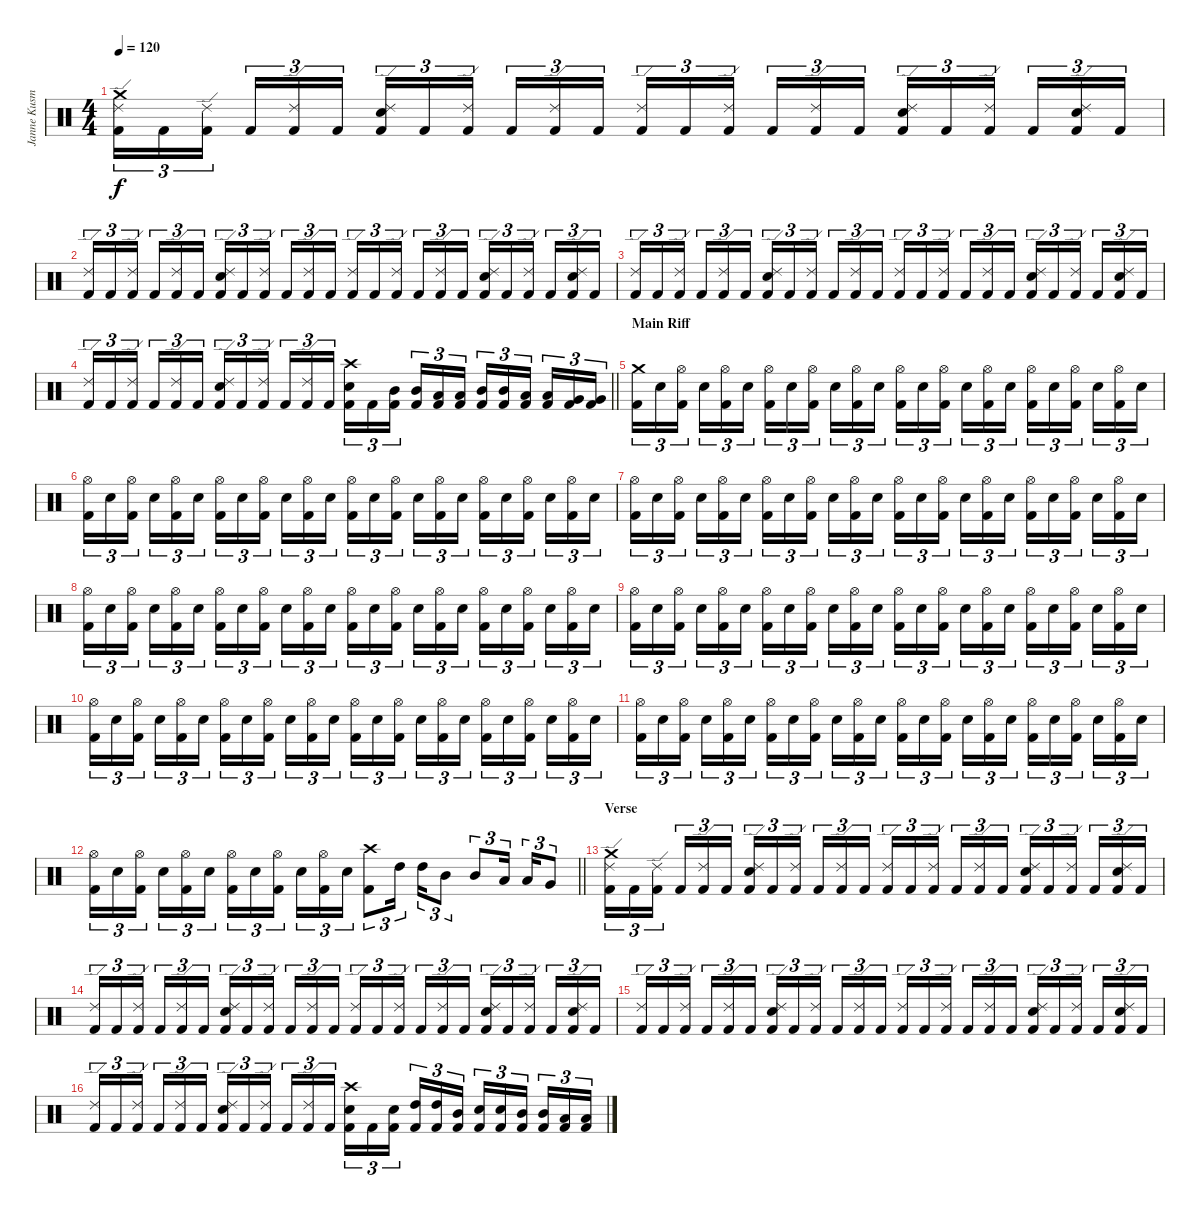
\track ("Janne Kusmin" "Janne Kusm") {instrument percussion}
\staff {score}
\articulation defaults
\ts (4 4)
\tempo 120
\clef neutral
\ks c
("Crash medium (hit)" "Ride (edge) 2" "Kick (hit) 2").16{tu (3 2) dy f} "Kick (hit) 2".16{tu (3 2)} ("Ride (edge) 2" "Kick (hit) 2").16{tu (3 2) beam splitsecondary} "Kick (hit) 2".16{tu (3 2)} ("Ride (edge) 2" "Kick (hit) 2").16{tu (3 2)} "Kick (hit) 2".16{tu (3 2)} ("Ride (edge) 2" "Snare (hit) 2" "Kick (hit) 2").16{tu (3 2)} "Kick (hit) 2".16{tu (3 2)} ("Ride (edge) 2" "Kick (hit) 2").16{tu (3 2) beam splitsecondary} "Kick (hit) 2".16{tu (3 2)} ("Ride (edge) 2" "Kick (hit) 2").16{tu (3 2)} "Kick (hit) 2".16{tu (3 2)} ("Ride (edge) 2" "Kick (hit) 2").16{tu (3 2)} "Kick (hit) 2".16{tu (3 2)} ("Ride (edge) 2" "Kick (hit) 2").16{tu (3 2) beam splitsecondary} "Kick (hit) 2".16{tu (3 2)} ("Ride (edge) 2" "Kick (hit) 2").16{tu (3 2)} "Kick (hit) 2".16{tu (3 2)} ("Ride (edge) 2" "Snare (hit) 2" "Kick (hit) 2").16{tu (3 2)} "Kick (hit) 2".16{tu (3 2)} ("Ride (edge) 2" "Kick (hit) 2").16{tu (3 2) beam splitsecondary} "Kick (hit) 2".16{tu (3 2)} ("Ride (edge) 2" "Snare (hit) 2" "Kick (hit) 2").16{tu (3 2)} "Kick (hit) 2".16{tu (3 2)} |
("Ride (edge) 2" "Kick (hit) 2").16{tu (3 2)} "Kick (hit) 2".16{tu (3 2)} ("Ride (edge) 2" "Kick (hit) 2").16{tu (3 2) beam splitsecondary} "Kick (hit) 2".16{tu (3 2)} ("Ride (edge) 2" "Kick (hit) 2").16{tu (3 2)} "Kick (hit) 2".16{tu (3 2)} ("Ride (edge) 2" "Snare (hit) 2" "Kick (hit) 2").16{tu (3 2)} "Kick (hit) 2".16{tu (3 2)} ("Ride (edge) 2" "Kick (hit) 2").16{tu (3 2) beam splitsecondary} "Kick (hit) 2".16{tu (3 2)} ("Ride (edge) 2" "Kick (hit) 2").16{tu (3 2)} "Kick (hit) 2".16{tu (3 2)} ("Ride (edge) 2" "Kick (hit) 2").16{tu (3 2)} "Kick (hit) 2".16{tu (3 2)} ("Ride (edge) 2" "Kick (hit) 2").16{tu (3 2) beam splitsecondary} "Kick (hit) 2".16{tu (3 2)} ("Ride (edge) 2" "Kick (hit) 2").16{tu (3 2)} "Kick (hit) 2".16{tu (3 2)} ("Ride (edge) 2" "Snare (hit) 2" "Kick (hit) 2").16{tu (3 2)} "Kick (hit) 2".16{tu (3 2)} ("Ride (edge) 2" "Kick (hit) 2").16{tu (3 2) beam splitsecondary} "Kick (hit) 2".16{tu (3 2)} ("Ride (edge) 2" "Snare (hit) 2" "Kick (hit) 2").16{tu (3 2)} "Kick (hit) 2".16{tu (3 2)} |
("Ride (edge) 2" "Kick (hit) 2").16{tu (3 2)} "Kick (hit) 2".16{tu (3 2)} ("Ride (edge) 2" "Kick (hit) 2").16{tu (3 2) beam splitsecondary} "Kick (hit) 2".16{tu (3 2)} ("Ride (edge) 2" "Kick (hit) 2").16{tu (3 2)} "Kick (hit) 2".16{tu (3 2)} ("Ride (edge) 2" "Snare (hit) 2" "Kick (hit) 2").16{tu (3 2)} "Kick (hit) 2".16{tu (3 2)} ("Ride (edge) 2" "Kick (hit) 2").16{tu (3 2) beam splitsecondary} "Kick (hit) 2".16{tu (3 2)} ("Ride (edge) 2" "Kick (hit) 2").16{tu (3 2)} "Kick (hit) 2".16{tu (3 2)} ("Ride (edge) 2" "Kick (hit) 2").16{tu (3 2)} "Kick (hit) 2".16{tu (3 2)} ("Ride (edge) 2" "Kick (hit) 2").16{tu (3 2) beam splitsecondary} "Kick (hit) 2".16{tu (3 2)} ("Ride (edge) 2" "Kick (hit) 2").16{tu (3 2)} "Kick (hit) 2".16{tu (3 2)} ("Ride (edge) 2" "Snare (hit) 2" "Kick (hit) 2").16{tu (3 2)} "Kick (hit) 2".16{tu (3 2)} ("Ride (edge) 2" "Kick (hit) 2").16{tu (3 2) beam splitsecondary} "Kick (hit) 2".16{tu (3 2)} ("Ride (edge) 2" "Snare (hit) 2" "Kick (hit) 2").16{tu (3 2)} "Kick (hit) 2".16{tu (3 2)} |
\barLineRight lightlight
("Ride (edge) 2" "Kick (hit) 2").16{tu (3 2)} "Kick (hit) 2".16{tu (3 2)} ("Ride (edge) 2" "Kick (hit) 2").16{tu (3 2) beam splitsecondary} "Kick (hit) 2".16{tu (3 2)} ("Ride (edge) 2" "Kick (hit) 2").16{tu (3 2)} "Kick (hit) 2".16{tu (3 2)} ("Ride (edge) 2" "Snare (hit) 2" "Kick (hit) 2").16{tu (3 2)} "Kick (hit) 2".16{tu (3 2)} ("Ride (edge) 2" "Kick (hit) 2").16{tu (3 2) beam splitsecondary} "Kick (hit) 2".16{tu (3 2)} ("Ride (edge) 2" "Kick (hit) 2").16{tu (3 2)} "Kick (hit) 2".16{tu (3 2)} ("Crash high (hit)" "Snare (hit) 2" "Kick (hit) 2").16{tu (3 2)} "Kick (hit) 2".16{tu (3 2)} ("Mid Tom (hit)" "Kick (hit) 2").16{tu (3 2) beam splitsecondary} ("Mid Tom (hit)" "Kick (hit) 2").16{tu (3 2)} ("Low Tom (hit)" "Kick (hit) 2").16{tu (3 2)} ("Low Tom (hit)" "Kick (hit) 2").16{tu (3 2)} ("Mid Tom (hit)" "Kick (hit) 2").16{tu (3 2)} ("Mid Tom (hit)" "Kick (hit) 2").16{tu (3 2)} ("Low Tom (hit)" "Kick (hit) 2").16{tu (3 2) beam splitsecondary} ("Low Tom (hit)" "Kick (hit) 2").16{tu (3 2)} ("Very Low Tom (hit)" "Kick (hit) 2").16{tu (3 2)} ("Very Low Tom (hit)" "Kick (hit) 2").16{tu (3 2)} |
\section ("" "Main Riff")
("Crash medium (hit)" "Kick (hit) 2").16{tu (3 2)} "Snare (hit) 2".16{tu (3 2)} ("Hi-Hat (open)" "Kick (hit) 2").16{tu (3 2) beam splitsecondary} "Snare (hit) 2".16{tu (3 2)} ("Hi-Hat (open)" "Kick (hit) 2").16{tu (3 2)} "Snare (hit) 2".16{tu (3 2)} ("Hi-Hat (open)" "Kick (hit) 2").16{tu (3 2)} "Snare (hit) 2".16{tu (3 2)} ("Hi-Hat (open)" "Kick (hit) 2").16{tu (3 2) beam splitsecondary} "Snare (hit) 2".16{tu (3 2)} ("Hi-Hat (open)" "Kick (hit) 2").16{tu (3 2)} "Snare (hit) 2".16{tu (3 2)} ("Hi-Hat (open)" "Kick (hit) 2").16{tu (3 2)} "Snare (hit) 2".16{tu (3 2)} ("Hi-Hat (open)" "Kick (hit) 2").16{tu (3 2) beam splitsecondary} "Snare (hit) 2".16{tu (3 2)} ("Hi-Hat (open)" "Kick (hit) 2").16{tu (3 2)} "Snare (hit) 2".16{tu (3 2)} ("Hi-Hat (open)" "Kick (hit) 2").16{tu (3 2)} "Snare (hit) 2".16{tu (3 2)} ("Hi-Hat (open)" "Kick (hit) 2").16{tu (3 2) beam splitsecondary} "Snare (hit) 2".16{tu (3 2)} ("Hi-Hat (open)" "Kick (hit) 2").16{tu (3 2)} "Snare (hit) 2".16{tu (3 2)} |
("Hi-Hat (open)" "Kick (hit) 2").16{tu (3 2)} "Snare (hit) 2".16{tu (3 2)} ("Hi-Hat (open)" "Kick (hit) 2").16{tu (3 2) beam splitsecondary} "Snare (hit) 2".16{tu (3 2)} ("Hi-Hat (open)" "Kick (hit) 2").16{tu (3 2)} "Snare (hit) 2".16{tu (3 2)} ("Hi-Hat (open)" "Kick (hit) 2").16{tu (3 2)} "Snare (hit) 2".16{tu (3 2)} ("Hi-Hat (open)" "Kick (hit) 2").16{tu (3 2) beam splitsecondary} "Snare (hit) 2".16{tu (3 2)} ("Hi-Hat (open)" "Kick (hit) 2").16{tu (3 2)} "Snare (hit) 2".16{tu (3 2)} ("Hi-Hat (open)" "Kick (hit) 2").16{tu (3 2)} "Snare (hit) 2".16{tu (3 2)} ("Hi-Hat (open)" "Kick (hit) 2").16{tu (3 2) beam splitsecondary} "Snare (hit) 2".16{tu (3 2)} ("Hi-Hat (open)" "Kick (hit) 2").16{tu (3 2)} "Snare (hit) 2".16{tu (3 2)} ("Hi-Hat (open)" "Kick (hit) 2").16{tu (3 2)} "Snare (hit) 2".16{tu (3 2)} ("Hi-Hat (open)" "Kick (hit) 2").16{tu (3 2) beam splitsecondary} "Snare (hit) 2".16{tu (3 2)} ("Hi-Hat (open)" "Kick (hit) 2").16{tu (3 2)} "Snare (hit) 2".16{tu (3 2)} |
("Hi-Hat (open)" "Kick (hit) 2").16{tu (3 2)} "Snare (hit) 2".16{tu (3 2)} ("Hi-Hat (open)" "Kick (hit) 2").16{tu (3 2) beam splitsecondary} "Snare (hit) 2".16{tu (3 2)} ("Hi-Hat (open)" "Kick (hit) 2").16{tu (3 2)} "Snare (hit) 2".16{tu (3 2)} ("Hi-Hat (open)" "Kick (hit) 2").16{tu (3 2)} "Snare (hit) 2".16{tu (3 2)} ("Hi-Hat (open)" "Kick (hit) 2").16{tu (3 2) beam splitsecondary} "Snare (hit) 2".16{tu (3 2)} ("Hi-Hat (open)" "Kick (hit) 2").16{tu (3 2)} "Snare (hit) 2".16{tu (3 2)} ("Hi-Hat (open)" "Kick (hit) 2").16{tu (3 2)} "Snare (hit) 2".16{tu (3 2)} ("Hi-Hat (open)" "Kick (hit) 2").16{tu (3 2) beam splitsecondary} "Snare (hit) 2".16{tu (3 2)} ("Hi-Hat (open)" "Kick (hit) 2").16{tu (3 2)} "Snare (hit) 2".16{tu (3 2)} ("Hi-Hat (open)" "Kick (hit) 2").16{tu (3 2)} "Snare (hit) 2".16{tu (3 2)} ("Hi-Hat (open)" "Kick (hit) 2").16{tu (3 2) beam splitsecondary} "Snare (hit) 2".16{tu (3 2)} ("Hi-Hat (open)" "Kick (hit) 2").16{tu (3 2)} "Snare (hit) 2".16{tu (3 2)} |
("Hi-Hat (open)" "Kick (hit) 2").16{tu (3 2)} "Snare (hit) 2".16{tu (3 2)} ("Hi-Hat (open)" "Kick (hit) 2").16{tu (3 2) beam splitsecondary} "Snare (hit) 2".16{tu (3 2)} ("Hi-Hat (open)" "Kick (hit) 2").16{tu (3 2)} "Snare (hit) 2".16{tu (3 2)} ("Hi-Hat (open)" "Kick (hit) 2").16{tu (3 2)} "Snare (hit) 2".16{tu (3 2)} ("Hi-Hat (open)" "Kick (hit) 2").16{tu (3 2) beam splitsecondary} "Snare (hit) 2".16{tu (3 2)} ("Hi-Hat (open)" "Kick (hit) 2").16{tu (3 2)} "Snare (hit) 2".16{tu (3 2)} ("Hi-Hat (open)" "Kick (hit) 2").16{tu (3 2)} "Snare (hit) 2".16{tu (3 2)} ("Hi-Hat (open)" "Kick (hit) 2").16{tu (3 2) beam splitsecondary} "Snare (hit) 2".16{tu (3 2)} ("Hi-Hat (open)" "Kick (hit) 2").16{tu (3 2)} "Snare (hit) 2".16{tu (3 2)} ("Hi-Hat (open)" "Kick (hit) 2").16{tu (3 2)} "Snare (hit) 2".16{tu (3 2)} ("Hi-Hat (open)" "Kick (hit) 2").16{tu (3 2) beam splitsecondary} "Snare (hit) 2".16{tu (3 2)} ("Hi-Hat (open)" "Kick (hit) 2").16{tu (3 2)} "Snare (hit) 2".16{tu (3 2)} |
("Hi-Hat (open)" "Kick (hit) 2").16{tu (3 2)} "Snare (hit) 2".16{tu (3 2)} ("Hi-Hat (open)" "Kick (hit) 2").16{tu (3 2) beam splitsecondary} "Snare (hit) 2".16{tu (3 2)} ("Hi-Hat (open)" "Kick (hit) 2").16{tu (3 2)} "Snare (hit) 2".16{tu (3 2)} ("Hi-Hat (open)" "Kick (hit) 2").16{tu (3 2)} "Snare (hit) 2".16{tu (3 2)} ("Hi-Hat (open)" "Kick (hit) 2").16{tu (3 2) beam splitsecondary} "Snare (hit) 2".16{tu (3 2)} ("Hi-Hat (open)" "Kick (hit) 2").16{tu (3 2)} "Snare (hit) 2".16{tu (3 2)} ("Hi-Hat (open)" "Kick (hit) 2").16{tu (3 2)} "Snare (hit) 2".16{tu (3 2)} ("Hi-Hat (open)" "Kick (hit) 2").16{tu (3 2) beam splitsecondary} "Snare (hit) 2".16{tu (3 2)} ("Hi-Hat (open)" "Kick (hit) 2").16{tu (3 2)} "Snare (hit) 2".16{tu (3 2)} ("Hi-Hat (open)" "Kick (hit) 2").16{tu (3 2)} "Snare (hit) 2".16{tu (3 2)} ("Hi-Hat (open)" "Kick (hit) 2").16{tu (3 2) beam splitsecondary} "Snare (hit) 2".16{tu (3 2)} ("Hi-Hat (open)" "Kick (hit) 2").16{tu (3 2)} "Snare (hit) 2".16{tu (3 2)} |
("Hi-Hat (open)" "Kick (hit) 2").16{tu (3 2)} "Snare (hit) 2".16{tu (3 2)} ("Hi-Hat (open)" "Kick (hit) 2").16{tu (3 2) beam splitsecondary} "Snare (hit) 2".16{tu (3 2)} ("Hi-Hat (open)" "Kick (hit) 2").16{tu (3 2)} "Snare (hit) 2".16{tu (3 2)} ("Hi-Hat (open)" "Kick (hit) 2").16{tu (3 2)} "Snare (hit) 2".16{tu (3 2)} ("Hi-Hat (open)" "Kick (hit) 2").16{tu (3 2) beam splitsecondary} "Snare (hit) 2".16{tu (3 2)} ("Hi-Hat (open)" "Kick (hit) 2").16{tu (3 2)} "Snare (hit) 2".16{tu (3 2)} ("Hi-Hat (open)" "Kick (hit) 2").16{tu (3 2)} "Snare (hit) 2".16{tu (3 2)} ("Hi-Hat (open)" "Kick (hit) 2").16{tu (3 2) beam splitsecondary} "Snare (hit) 2".16{tu (3 2)} ("Hi-Hat (open)" "Kick (hit) 2").16{tu (3 2)} "Snare (hit) 2".16{tu (3 2)} ("Hi-Hat (open)" "Kick (hit) 2").16{tu (3 2)} "Snare (hit) 2".16{tu (3 2)} ("Hi-Hat (open)" "Kick (hit) 2").16{tu (3 2) beam splitsecondary} "Snare (hit) 2".16{tu (3 2)} ("Hi-Hat (open)" "Kick (hit) 2").16{tu (3 2)} "Snare (hit) 2".16{tu (3 2)} |
("Hi-Hat (open)" "Kick (hit) 2").16{tu (3 2)} "Snare (hit) 2".16{tu (3 2)} ("Hi-Hat (open)" "Kick (hit) 2").16{tu (3 2) beam splitsecondary} "Snare (hit) 2".16{tu (3 2)} ("Hi-Hat (open)" "Kick (hit) 2").16{tu (3 2)} "Snare (hit) 2".16{tu (3 2)} ("Hi-Hat (open)" "Kick (hit) 2").16{tu (3 2)} "Snare (hit) 2".16{tu (3 2)} ("Hi-Hat (open)" "Kick (hit) 2").16{tu (3 2) beam splitsecondary} "Snare (hit) 2".16{tu (3 2)} ("Hi-Hat (open)" "Kick (hit) 2").16{tu (3 2)} "Snare (hit) 2".16{tu (3 2)} ("Hi-Hat (open)" "Kick (hit) 2").16{tu (3 2)} "Snare (hit) 2".16{tu (3 2)} ("Hi-Hat (open)" "Kick (hit) 2").16{tu (3 2) beam splitsecondary} "Snare (hit) 2".16{tu (3 2)} ("Hi-Hat (open)" "Kick (hit) 2").16{tu (3 2)} "Snare (hit) 2".16{tu (3 2)} ("Hi-Hat (open)" "Kick (hit) 2").16{tu (3 2)} "Snare (hit) 2".16{tu (3 2)} ("Hi-Hat (open)" "Kick (hit) 2").16{tu (3 2) beam splitsecondary} "Snare (hit) 2".16{tu (3 2)} ("Hi-Hat (open)" "Kick (hit) 2").16{tu (3 2)} "Snare (hit) 2".16{tu (3 2)} |
\barLineRight lightlight
("Hi-Hat (open)" "Kick (hit) 2").16{tu (3 2)} "Snare (hit) 2".16{tu (3 2)} ("Hi-Hat (open)" "Kick (hit) 2").16{tu (3 2) beam splitsecondary} "Snare (hit) 2".16{tu (3 2)} ("Hi-Hat (open)" "Kick (hit) 2").16{tu (3 2)} "Snare (hit) 2".16{tu (3 2)} ("Hi-Hat (open)" "Kick (hit) 2").16{tu (3 2)} "Snare (hit) 2".16{tu (3 2)} ("Hi-Hat (open)" "Kick (hit) 2").16{tu (3 2) beam splitsecondary} "Snare (hit) 2".16{tu (3 2)} ("Hi-Hat (open)" "Kick (hit) 2").16{tu (3 2)} "Snare (hit) 2".16{tu (3 2)} ("Crash high (hit)" "Kick (hit) 2").8{tu (3 2)} "High Tom (hit)".16{tu (3 2) beam splitsecondary} "High Tom (hit)".16{tu (3 2)} "Mid Tom (hit)".8{tu (3 2)} "Mid Tom (hit)".8{tu (3 2)} "Low Tom (hit)".16{tu (3 2) beam splitsecondary} "Low Tom (hit)".16{tu (3 2)} "Very Low Tom (hit)".8{tu (3 2)} |
\section ("" "Verse")
("Crash medium (hit)" "Ride (edge) 2" "Kick (hit) 2").16{tu (3 2)} "Kick (hit) 2".16{tu (3 2)} ("Ride (edge) 2" "Kick (hit) 2").16{tu (3 2) beam splitsecondary} "Kick (hit) 2".16{tu (3 2)} ("Ride (edge) 2" "Kick (hit) 2").16{tu (3 2)} "Kick (hit) 2".16{tu (3 2)} ("Ride (edge) 2" "Snare (hit) 2" "Kick (hit) 2").16{tu (3 2)} "Kick (hit) 2".16{tu (3 2)} ("Ride (edge) 2" "Kick (hit) 2").16{tu (3 2) beam splitsecondary} "Kick (hit) 2".16{tu (3 2)} ("Ride (edge) 2" "Kick (hit) 2").16{tu (3 2)} "Kick (hit) 2".16{tu (3 2)} ("Ride (edge) 2" "Kick (hit) 2").16{tu (3 2)} "Kick (hit) 2".16{tu (3 2)} ("Ride (edge) 2" "Kick (hit) 2").16{tu (3 2) beam splitsecondary} "Kick (hit) 2".16{tu (3 2)} ("Ride (edge) 2" "Kick (hit) 2").16{tu (3 2)} "Kick (hit) 2".16{tu (3 2)} ("Ride (edge) 2" "Snare (hit) 2" "Kick (hit) 2").16{tu (3 2)} "Kick (hit) 2".16{tu (3 2)} ("Ride (edge) 2" "Kick (hit) 2").16{tu (3 2) beam splitsecondary} "Kick (hit) 2".16{tu (3 2)} ("Ride (edge) 2" "Snare (hit) 2" "Kick (hit) 2").16{tu (3 2)} "Kick (hit) 2".16{tu (3 2)} |
("Ride (edge) 2" "Kick (hit) 2").16{tu (3 2)} "Kick (hit) 2".16{tu (3 2)} ("Ride (edge) 2" "Kick (hit) 2").16{tu (3 2) beam splitsecondary} "Kick (hit) 2".16{tu (3 2)} ("Ride (edge) 2" "Kick (hit) 2").16{tu (3 2)} "Kick (hit) 2".16{tu (3 2)} ("Ride (edge) 2" "Snare (hit) 2" "Kick (hit) 2").16{tu (3 2)} "Kick (hit) 2".16{tu (3 2)} ("Ride (edge) 2" "Kick (hit) 2").16{tu (3 2) beam splitsecondary} "Kick (hit) 2".16{tu (3 2)} ("Ride (edge) 2" "Kick (hit) 2").16{tu (3 2)} "Kick (hit) 2".16{tu (3 2)} ("Ride (edge) 2" "Kick (hit) 2").16{tu (3 2)} "Kick (hit) 2".16{tu (3 2)} ("Ride (edge) 2" "Kick (hit) 2").16{tu (3 2) beam splitsecondary} "Kick (hit) 2".16{tu (3 2)} ("Ride (edge) 2" "Kick (hit) 2").16{tu (3 2)} "Kick (hit) 2".16{tu (3 2)} ("Ride (edge) 2" "Snare (hit) 2" "Kick (hit) 2").16{tu (3 2)} "Kick (hit) 2".16{tu (3 2)} ("Ride (edge) 2" "Kick (hit) 2").16{tu (3 2) beam splitsecondary} "Kick (hit) 2".16{tu (3 2)} ("Ride (edge) 2" "Snare (hit) 2" "Kick (hit) 2").16{tu (3 2)} "Kick (hit) 2".16{tu (3 2)} |
("Ride (edge) 2" "Kick (hit) 2").16{tu (3 2)} "Kick (hit) 2".16{tu (3 2)} ("Ride (edge) 2" "Kick (hit) 2").16{tu (3 2) beam splitsecondary} "Kick (hit) 2".16{tu (3 2)} ("Ride (edge) 2" "Kick (hit) 2").16{tu (3 2)} "Kick (hit) 2".16{tu (3 2)} ("Ride (edge) 2" "Snare (hit) 2" "Kick (hit) 2").16{tu (3 2)} "Kick (hit) 2".16{tu (3 2)} ("Ride (edge) 2" "Kick (hit) 2").16{tu (3 2) beam splitsecondary} "Kick (hit) 2".16{tu (3 2)} ("Ride (edge) 2" "Kick (hit) 2").16{tu (3 2)} "Kick (hit) 2".16{tu (3 2)} ("Ride (edge) 2" "Kick (hit) 2").16{tu (3 2)} "Kick (hit) 2".16{tu (3 2)} ("Ride (edge) 2" "Kick (hit) 2").16{tu (3 2) beam splitsecondary} "Kick (hit) 2".16{tu (3 2)} ("Ride (edge) 2" "Kick (hit) 2").16{tu (3 2)} "Kick (hit) 2".16{tu (3 2)} ("Ride (edge) 2" "Snare (hit) 2" "Kick (hit) 2").16{tu (3 2)} "Kick (hit) 2".16{tu (3 2)} ("Ride (edge) 2" "Kick (hit) 2").16{tu (3 2) beam splitsecondary} "Kick (hit) 2".16{tu (3 2)} ("Ride (edge) 2" "Snare (hit) 2" "Kick (hit) 2").16{tu (3 2)} "Kick (hit) 2".16{tu (3 2)} |
("Ride (edge) 2" "Kick (hit) 2").16{tu (3 2)} "Kick (hit) 2".16{tu (3 2)} ("Ride (edge) 2" "Kick (hit) 2").16{tu (3 2) beam splitsecondary} "Kick (hit) 2".16{tu (3 2)} ("Ride (edge) 2" "Kick (hit) 2").16{tu (3 2)} "Kick (hit) 2".16{tu (3 2)} ("Ride (edge) 2" "Snare (hit) 2" "Kick (hit) 2").16{tu (3 2)} "Kick (hit) 2".16{tu (3 2)} ("Ride (edge) 2" "Kick (hit) 2").16{tu (3 2) beam splitsecondary} "Kick (hit) 2".16{tu (3 2)} ("Ride (edge) 2" "Kick (hit) 2").16{tu (3 2)} "Kick (hit) 2".16{tu (3 2)} ("Crash high (hit)" "Snare (hit) 2" "Kick (hit) 2").16{tu (3 2)} "Kick (hit) 2".16{tu (3 2)} ("Snare (hit) 2" "Kick (hit) 2").16{tu (3 2) beam splitsecondary} ("High Tom (hit)" "Kick (hit) 2").16{tu (3 2)} ("High Tom (hit)" "Kick (hit) 2").16{tu (3 2)} ("Mid Tom (hit)" "Kick (hit) 2").16{tu (3 2)} ("Snare (hit) 2" "Kick (hit) 2").16{tu (3 2)} ("Snare (hit) 2" "Kick (hit) 2").16{tu (3 2)} ("Mid Tom (hit)" "Kick (hit) 2").16{tu (3 2) beam splitsecondary} ("Mid Tom (hit)" "Kick (hit) 2").16{tu (3 2)} ("Low Tom (hit)" "Kick (hit) 2").16{tu (3 2)} ("Low Tom (hit)" "Kick (hit) 2").16{tu (3 2)}
